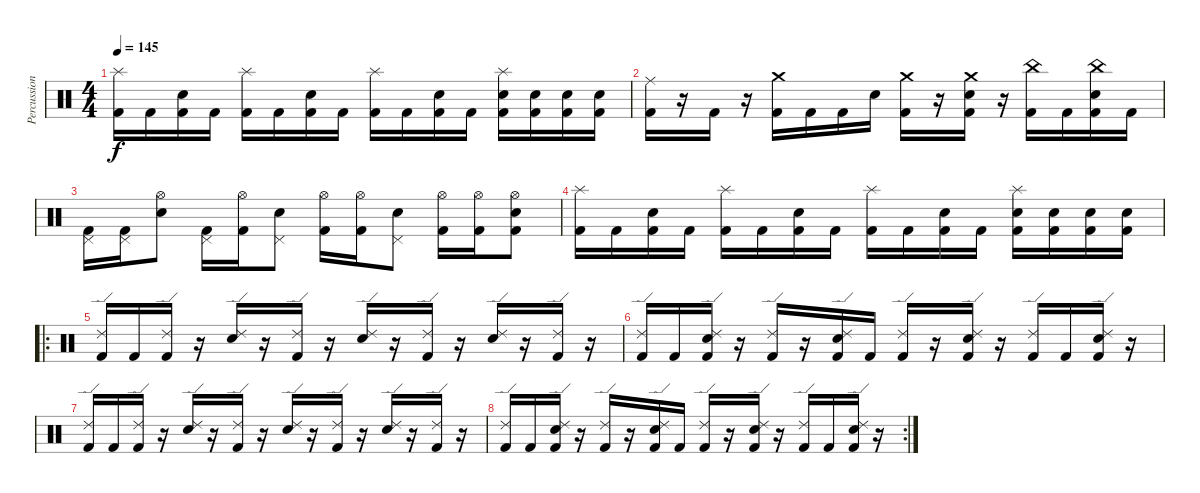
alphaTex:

\track ("Percussion" "Percussion") {instrument percussion}
\staff {score}
\articulation defaults
\ts (4 4)
\tempo 145
\clef neutral
\ks c
("Splash (hit)" "Kick (hit) 2").16{dy f} "Kick (hit) 2".16 ("Snare (hit) 2" "Kick (hit) 2").16 "Kick (hit) 2".16 ("Splash (hit)" "Kick (hit) 2").16 "Kick (hit) 2".16 ("Snare (hit) 2" "Kick (hit) 2").16 "Kick (hit) 2".16 ("Splash (hit)" "Kick (hit) 2").16 "Kick (hit) 2".16 ("Snare (hit) 2" "Kick (hit) 2").16 "Kick (hit) 2".16 ("Splash (hit)" "Snare (hit) 2" "Kick (hit) 2").16 ("Snare (hit) 2" "Kick (hit) 2").16 ("Snare (hit) 2" "Kick (hit) 2").16 ("Snare (hit) 2" "Kick (hit) 2").16 |
("Ride (middle)" "Kick (hit) 2").16 r.16 "Kick (hit) 2".16 r.16 ("Crash medium (hit)" "Kick (hit) 2").16 "Kick (hit) 2".16 "Kick (hit) 2".16 "Snare (hit) 2".16 ("Crash medium (hit)" "Kick (hit) 2").16 r.16 ("Crash medium (hit)" "Snare (hit) 2" "Kick (hit) 2").16 r.16 ("China (hit)" "Kick (hit) 2").16 "Kick (hit) 2".16 ("China (hit)" "Snare (hit) 2" "Kick (hit) 2").16 "Kick (hit) 2".16 |
("Pedal Hi-Hat (hit)" "Kick (hit) 2").16 ("Pedal Hi-Hat (hit)" "Kick (hit) 2").16 ("Hi-Hat (open)" "Snare (hit) 2").8 ("Pedal Hi-Hat (hit)" "Kick (hit) 2").16 ("Hi-Hat (open)" "Kick (hit) 2").16 ("Pedal Hi-Hat (hit)" "Snare (hit) 2").8 ("Hi-Hat (open)" "Kick (hit) 2").16 ("Hi-Hat (open)" "Kick (hit) 2").16 ("Pedal Hi-Hat (hit)" "Snare (hit) 2").8 ("Hi-Hat (open)" "Kick (hit) 2").16 ("Hi-Hat (open)" "Kick (hit) 2").16 ("Hi-Hat (open)" "Snare (hit) 2" "Kick (hit) 2").8 |
("Splash (hit)" "Kick (hit) 2").16 "Kick (hit) 2".16 ("Snare (hit) 2" "Kick (hit) 2").16 "Kick (hit) 2".16 ("Splash (hit)" "Kick (hit) 2").16 "Kick (hit) 2".16 ("Snare (hit) 2" "Kick (hit) 2").16 "Kick (hit) 2".16 ("Splash (hit)" "Kick (hit) 2").16 "Kick (hit) 2".16 ("Snare (hit) 2" "Kick (hit) 2").16 "Kick (hit) 2".16 ("Splash (hit)" "Snare (hit) 2" "Kick (hit) 2").16 ("Snare (hit) 2" "Kick (hit) 2").16 ("Snare (hit) 2" "Kick (hit) 2").16 ("Snare (hit) 2" "Kick (hit) 2").16 |
\ro
("Ride (edge) 2" "Kick (hit) 2").16 "Kick (hit) 2".16 ("Ride (edge) 2" "Kick (hit) 2").16 r.16 ("Ride (edge) 2" "Snare (hit) 2").16 r.16 ("Ride (edge) 2" "Kick (hit) 2").16 r.16 ("Ride (edge) 2" "Snare (hit) 2").16 r.16 ("Ride (edge) 2" "Kick (hit) 2").16 r.16 ("Ride (edge) 2" "Snare (hit) 2").16 r.16 ("Ride (edge) 2" "Kick (hit) 2").16 r.16 |
("Ride (edge) 2" "Kick (hit) 2").16 "Kick (hit) 2".16 ("Ride (edge) 2" "Snare (hit) 2" "Kick (hit) 2").16 r.16 ("Ride (edge) 2" "Kick (hit) 2").16 r.16 ("Ride (edge) 2" "Snare (hit) 2" "Kick (hit) 2").16 "Kick (hit) 2".16 ("Ride (edge) 2" "Kick (hit) 2").16 r.16 ("Ride (edge) 2" "Snare (hit) 2" "Kick (hit) 2").16 r.16 ("Ride (edge) 2" "Kick (hit) 2").16 "Kick (hit) 2".16 ("Ride (edge) 2" "Snare (hit) 2" "Kick (hit) 2").16 r.16 |
("Ride (edge) 2" "Kick (hit) 2").16 "Kick (hit) 2".16 ("Ride (edge) 2" "Kick (hit) 2").16 r.16 ("Ride (edge) 2" "Snare (hit) 2").16 r.16 ("Ride (edge) 2" "Kick (hit) 2").16 r.16 ("Ride (edge) 2" "Snare (hit) 2").16 r.16 ("Ride (edge) 2" "Kick (hit) 2").16 r.16 ("Ride (edge) 2" "Snare (hit) 2").16 r.16 ("Ride (edge) 2" "Kick (hit) 2").16 r.16 |
\rc 2
("Ride (edge) 2" "Kick (hit) 2").16 "Kick (hit) 2".16 ("Ride (edge) 2" "Snare (hit) 2" "Kick (hit) 2").16 r.16 ("Ride (edge) 2" "Kick (hit) 2").16 r.16 ("Ride (edge) 2" "Snare (hit) 2" "Kick (hit) 2").16 "Kick (hit) 2".16 ("Ride (edge) 2" "Kick (hit) 2").16 r.16 ("Ride (edge) 2" "Snare (hit) 2" "Kick (hit) 2").16 r.16 ("Ride (edge) 2" "Kick (hit) 2").16 "Kick (hit) 2".16 ("Ride (edge) 2" "Snare (hit) 2" "Kick (hit) 2").16 r.16
